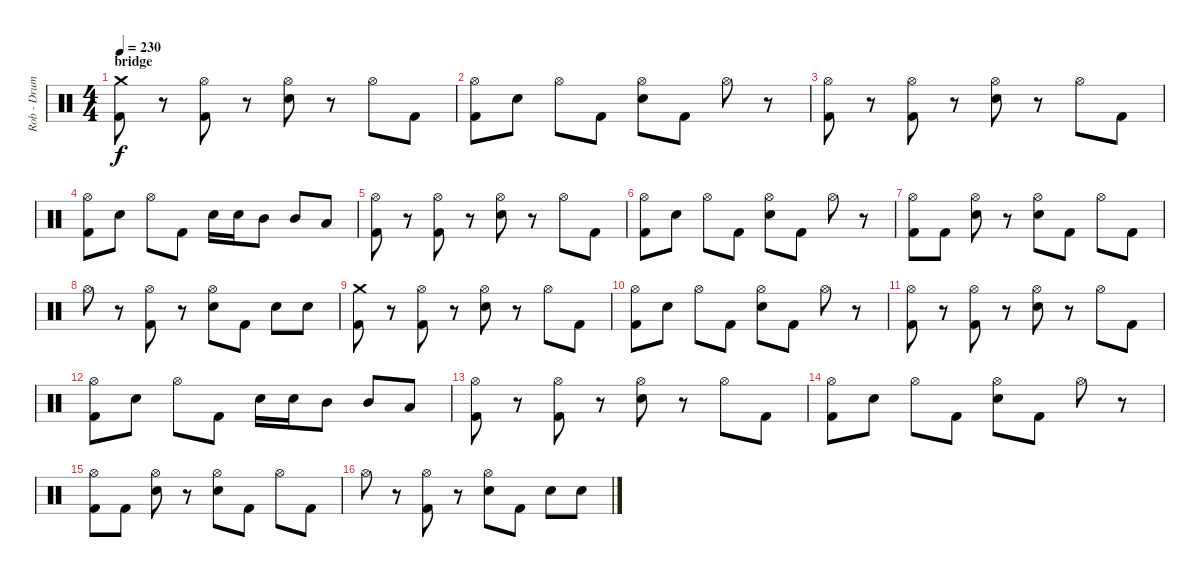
\track ("Rob - Drums" "Rob - Drum") {instrument percussion}
\staff {score}
\articulation defaults
\ts (4 4)
\section ("" "bridge")
\tempo 230
\clef neutral
\ks c
("Crash medium (hit)" "Kick (hit) 2").8{dy f} r.8 ("Hi-Hat (open)" "Kick (hit) 2").8 r.8 ("Hi-Hat (open)" "Electric Snare (hit)").8 r.8 "Hi-Hat (open)".8 "Kick (hit) 2".8 |
("Hi-Hat (open)" "Kick (hit) 2").8 "Electric Snare (hit)".8 "Hi-Hat (open)".8 "Kick (hit) 2".8 ("Hi-Hat (open)" "Electric Snare (hit)").8 "Kick (hit) 2".8 "Hi-Hat (open)".8 r.8 |
("Hi-Hat (open)" "Kick (hit) 2").8 r.8 ("Hi-Hat (open)" "Kick (hit) 2").8 r.8 ("Hi-Hat (open)" "Electric Snare (hit)").8 r.8 "Hi-Hat (open)".8 "Kick (hit) 2".8 |
("Hi-Hat (open)" "Kick (hit) 2").8 "Electric Snare (hit)".8 "Hi-Hat (open)".8 "Kick (hit) 2".8 "Electric Snare (hit)".16 "Electric Snare (hit)".16 "Mid Tom (hit)".8 "Mid Tom (hit)".8 "Low Tom (hit)".8 |
("Hi-Hat (open)" "Kick (hit) 2").8 r.8 ("Hi-Hat (open)" "Kick (hit) 2").8 r.8 ("Hi-Hat (open)" "Electric Snare (hit)").8 r.8 "Hi-Hat (open)".8 "Kick (hit) 2".8 |
("Hi-Hat (open)" "Kick (hit) 2").8 "Electric Snare (hit)".8 "Hi-Hat (open)".8 "Kick (hit) 2".8 ("Hi-Hat (open)" "Electric Snare (hit)").8 "Kick (hit) 2".8 "Hi-Hat (open)".8 r.8 |
("Hi-Hat (open)" "Kick (hit) 2").8 "Kick (hit) 2".8 ("Hi-Hat (open)" "Electric Snare (hit)").8 r.8 ("Hi-Hat (open)" "Electric Snare (hit)").8 "Kick (hit) 2".8 "Hi-Hat (open)".8 "Kick (hit) 2".8 |
"Hi-Hat (open)".8 r.8 ("Hi-Hat (open)" "Kick (hit) 2").8 r.8 ("Hi-Hat (open)" "Electric Snare (hit)").8 "Kick (hit) 2".8 "Electric Snare (hit)".8 "Electric Snare (hit)".8 |
("Crash medium (hit)" "Kick (hit) 2").8 r.8 ("Hi-Hat (open)" "Kick (hit) 2").8 r.8 ("Hi-Hat (open)" "Electric Snare (hit)").8 r.8 "Hi-Hat (open)".8 "Kick (hit) 2".8 |
("Hi-Hat (open)" "Kick (hit) 2").8 "Electric Snare (hit)".8 "Hi-Hat (open)".8 "Kick (hit) 2".8 ("Hi-Hat (open)" "Electric Snare (hit)").8 "Kick (hit) 2".8 "Hi-Hat (open)".8 r.8 |
("Hi-Hat (open)" "Kick (hit) 2").8 r.8 ("Hi-Hat (open)" "Kick (hit) 2").8 r.8 ("Hi-Hat (open)" "Electric Snare (hit)").8 r.8 "Hi-Hat (open)".8 "Kick (hit) 2".8 |
("Hi-Hat (open)" "Kick (hit) 2").8 "Electric Snare (hit)".8 "Hi-Hat (open)".8 "Kick (hit) 2".8 "Electric Snare (hit)".16 "Electric Snare (hit)".16 "Mid Tom (hit)".8 "Mid Tom (hit)".8 "Low Tom (hit)".8 |
("Hi-Hat (open)" "Kick (hit) 2").8 r.8 ("Hi-Hat (open)" "Kick (hit) 2").8 r.8 ("Hi-Hat (open)" "Electric Snare (hit)").8 r.8 "Hi-Hat (open)".8 "Kick (hit) 2".8 |
("Hi-Hat (open)" "Kick (hit) 2").8 "Electric Snare (hit)".8 "Hi-Hat (open)".8 "Kick (hit) 2".8 ("Hi-Hat (open)" "Electric Snare (hit)").8 "Kick (hit) 2".8 "Hi-Hat (open)".8 r.8 |
("Hi-Hat (open)" "Kick (hit) 2").8 "Kick (hit) 2".8 ("Hi-Hat (open)" "Electric Snare (hit)").8 r.8 ("Hi-Hat (open)" "Electric Snare (hit)").8 "Kick (hit) 2".8 "Hi-Hat (open)".8 "Kick (hit) 2".8 |
"Hi-Hat (open)".8 r.8 ("Hi-Hat (open)" "Kick (hit) 2").8 r.8 ("Hi-Hat (open)" "Electric Snare (hit)").8 "Kick (hit) 2".8 "Electric Snare (hit)".8 "Electric Snare (hit)".8
